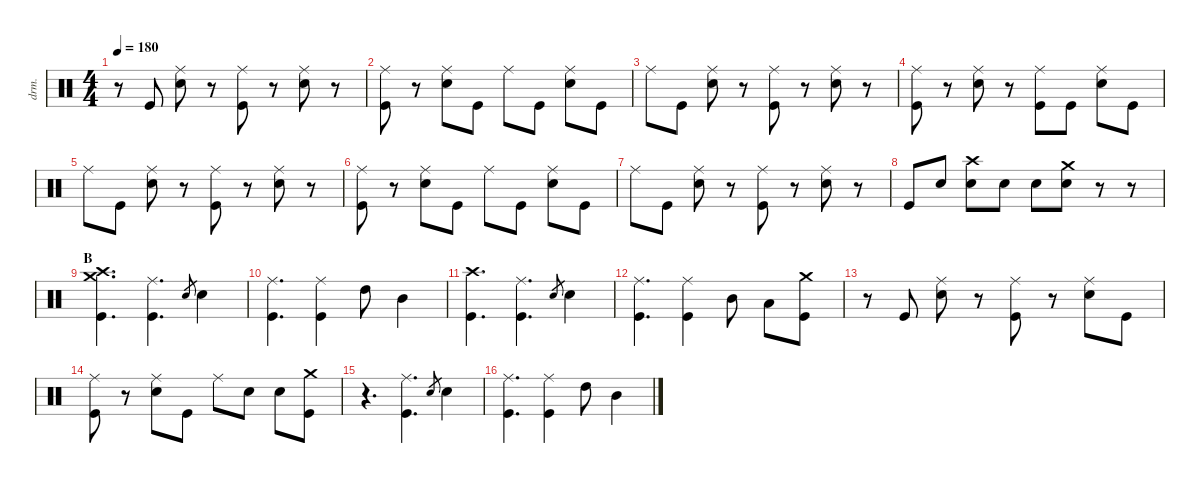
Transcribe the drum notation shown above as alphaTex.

\defaultSystemsLayout 4
\hideDynamics
\bracketExtendMode nobrackets
\track ("Bateria" "drm.") {instrument percussion}
\staff {score}
\articulation defaults
\ts (4 4)
\tempo 180
\clef neutral
\ks c
r.8{dy f} "Kick (hit)".8 ("Ride (middle)" "Snare (hit) 2").8 r.8 ("Ride (middle)" "Kick (hit)").8 r.8 ("Ride (middle)" "Snare (hit) 2").8 r.8 |
("Ride (middle)" "Kick (hit)").8 r.8 ("Ride (middle)" "Snare (hit) 2").8 "Kick (hit)".8 "Ride (middle)".8 "Kick (hit)".8 ("Ride (middle)" "Snare (hit) 2").8 "Kick (hit)".8 |
"Ride (middle)".8 "Kick (hit)".8 ("Ride (middle)" "Snare (hit) 2").8 r.8 ("Ride (middle)" "Kick (hit)").8 r.8 ("Ride (middle)" "Snare (hit) 2").8 r.8 |
("Ride (middle)" "Kick (hit)").8 r.8 ("Ride (middle)" "Snare (hit) 2").8 r.8 ("Ride (middle)" "Kick (hit)").8 "Kick (hit)".8 ("Ride (middle)" "Snare (hit) 2").8 "Kick (hit)".8 |
"Ride (middle)".8 "Kick (hit)".8 ("Ride (middle)" "Snare (hit) 2").8 r.8 ("Ride (middle)" "Kick (hit)").8 r.8 ("Ride (middle)" "Snare (hit) 2").8 r.8 |
("Ride (middle)" "Kick (hit)").8 r.8 ("Ride (middle)" "Snare (hit) 2").8 "Kick (hit)".8 "Ride (middle)".8 "Kick (hit)".8 ("Ride (middle)" "Snare (hit) 2").8 "Kick (hit)".8 |
"Ride (middle)".8 "Kick (hit)".8 ("Ride (middle)" "Snare (hit) 2").8 r.8 ("Ride (middle)" "Kick (hit)").8 r.8 ("Ride (middle)" "Snare (hit) 2").8 r.8 |
"Kick (hit)".8 "Snare (hit) 2".8 ("Snare (hit) 2" "Crash high (hit)").8 "Snare (hit) 2".8 "Snare (hit) 2".8 ("Snare (hit) 2" "Crash medium (hit)").8 r.8 r.8 |
\section ("" "B")
("Kick (hit)" "Crash high (hit)" "Crash medium (hit)").4{d} ("Ride (middle)" "Kick (hit)").4{d} "Electric Snare (hit)".8{gr dy mf} "Snare (hit) 2".4{dy f} |
("Ride (middle)" "Kick (hit)").4{d} ("Ride (middle)" "Kick (hit)").4 "High Tom (hit)".8 "Mid Tom (hit)".4 |
("Kick (hit)" "Crash high (hit)").4{d} ("Ride (middle)" "Kick (hit)").4{d} "Electric Snare (hit)".8{gr dy mf} "Snare (hit) 2".4{dy f} |
("Ride (middle)" "Kick (hit)").4{d} ("Ride (middle)" "Kick (hit)").4 "Mid Tom (hit)".8 "Low Tom (hit)".8 ("Kick (hit)" "Crash medium (hit)").8 |
r.8 "Kick (hit)".8 ("Ride (middle)" "Snare (hit) 2").8 r.8 ("Ride (middle)" "Kick (hit)").8 r.8 ("Ride (middle)" "Snare (hit) 2").8 "Kick (hit)".8 |
("Ride (middle)" "Kick (hit)").8 r.8 ("Ride (middle)" "Snare (hit) 2").8 "Kick (hit)".8 "Ride (middle)".8 "Snare (hit) 2".8 "Snare (hit) 2".8 ("Kick (hit)" "Crash medium (hit)").8 |
r.4{d} ("Ride (middle)" "Kick (hit)").4{d} "Electric Snare (hit)".8{gr dy mf} "Snare (hit) 2".4{dy f} |
("Ride (middle)" "Kick (hit)").4{d} ("Ride (middle)" "Kick (hit)").4 "High Tom (hit)".8 "Mid Tom (hit)".4
